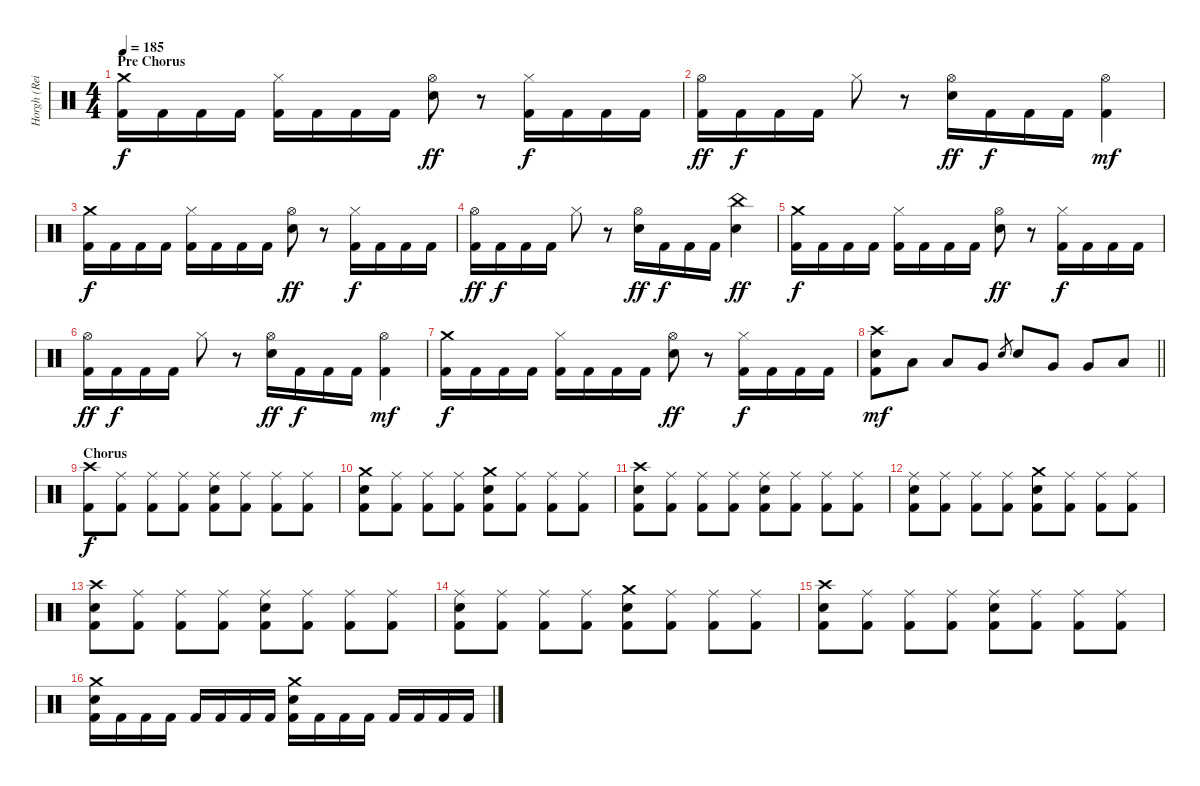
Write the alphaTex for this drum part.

\track ("Horgh (Reidar Horghagen)" "Horgh (Rei") {instrument percussion}
\staff {score}
\articulation defaults
\ts (4 4)
\section ("" "Pre Chorus")
\tempo 185
\clef neutral
\ks c
("Crash medium (hit)" "Kick (hit) 2").16{dy f} "Kick (hit) 2".16 "Kick (hit) 2".16 "Kick (hit) 2".16 ("Hi-Hat (closed)" "Kick (hit) 2").16 "Kick (hit) 2".16 "Kick (hit) 2".16 "Kick (hit) 2".16 ("Hi-Hat (open)" "Snare (hit) 2").8{dy ff} r.8 ("Hi-Hat (closed)" "Kick (hit) 2").16{dy f} "Kick (hit) 2".16 "Kick (hit) 2".16 "Kick (hit) 2".16 |
("Hi-Hat (open)" "Kick (hit) 2").16{dy ff} "Kick (hit) 2".16{dy f} "Kick (hit) 2".16 "Kick (hit) 2".16 "Hi-Hat (closed)".8 r.8 ("Hi-Hat (open)" "Snare (hit) 2").16{dy ff} "Kick (hit) 2".16{dy f} "Kick (hit) 2".16 "Kick (hit) 2".16 ("Hi-Hat (open)" "Kick (hit) 2").4{dy mf} |
("Crash medium (hit)" "Kick (hit) 2").16{dy f} "Kick (hit) 2".16 "Kick (hit) 2".16 "Kick (hit) 2".16 ("Hi-Hat (closed)" "Kick (hit) 2").16 "Kick (hit) 2".16 "Kick (hit) 2".16 "Kick (hit) 2".16 ("Hi-Hat (open)" "Snare (hit) 2").8{dy ff} r.8 ("Hi-Hat (closed)" "Kick (hit) 2").16{dy f} "Kick (hit) 2".16 "Kick (hit) 2".16 "Kick (hit) 2".16 |
("Hi-Hat (open)" "Kick (hit) 2").16{dy ff} "Kick (hit) 2".16{dy f} "Kick (hit) 2".16 "Kick (hit) 2".16 "Hi-Hat (closed)".8 r.8 ("Hi-Hat (open)" "Snare (hit) 2").16{dy ff} "Kick (hit) 2".16{dy f} "Kick (hit) 2".16 "Kick (hit) 2".16 ("China (hit)" "Snare (hit) 2").4{dy ff} |
("Crash medium (hit)" "Kick (hit) 2").16{dy f} "Kick (hit) 2".16 "Kick (hit) 2".16 "Kick (hit) 2".16 ("Hi-Hat (closed)" "Kick (hit) 2").16 "Kick (hit) 2".16 "Kick (hit) 2".16 "Kick (hit) 2".16 ("Hi-Hat (open)" "Snare (hit) 2").8{dy ff} r.8 ("Hi-Hat (closed)" "Kick (hit) 2").16{dy f} "Kick (hit) 2".16 "Kick (hit) 2".16 "Kick (hit) 2".16 |
("Hi-Hat (open)" "Kick (hit) 2").16{dy ff} "Kick (hit) 2".16{dy f} "Kick (hit) 2".16 "Kick (hit) 2".16 "Hi-Hat (closed)".8 r.8 ("Hi-Hat (open)" "Snare (hit) 2").16{dy ff} "Kick (hit) 2".16{dy f} "Kick (hit) 2".16 "Kick (hit) 2".16 ("Hi-Hat (open)" "Kick (hit) 2").4{dy mf} |
("Crash medium (hit)" "Kick (hit) 2").16{dy f} "Kick (hit) 2".16 "Kick (hit) 2".16 "Kick (hit) 2".16 ("Hi-Hat (closed)" "Kick (hit) 2").16 "Kick (hit) 2".16 "Kick (hit) 2".16 "Kick (hit) 2".16 ("Hi-Hat (open)" "Snare (hit) 2").8{dy ff} r.8 ("Hi-Hat (closed)" "Kick (hit) 2").16{dy f} "Kick (hit) 2".16 "Kick (hit) 2".16 "Kick (hit) 2".16 |
\barLineRight lightlight
("Crash high (hit)" "Snare (hit) 2" "Kick (hit) 2").8{dy mf} "Low Tom (hit)".8 "Low Tom (hit)".8 "Very Low Tom (hit)".8 "Snare (hit) 2".8{gr} "Snare (hit) 2".8 "Very Low Tom (hit)".8 "Very Low Tom (hit)".8 "Low Floor Tom (hit)".8 |
\section ("" "Chorus")
("Crash high (hit)" "Kick (hit) 2").8{dy f} ("Ride (middle)" "Kick (hit) 2").8 ("Ride (middle)" "Kick (hit) 2").8 ("Ride (middle)" "Kick (hit) 2").8 ("Ride (middle)" "Snare (hit) 2" "Kick (hit) 2").8 ("Ride (middle)" "Kick (hit) 2").8 ("Ride (middle)" "Kick (hit) 2").8 ("Ride (middle)" "Kick (hit) 2").8 |
("Crash medium (hit)" "Snare (hit) 2" "Kick (hit) 2").8 ("Ride (middle)" "Kick (hit) 2").8 ("Ride (middle)" "Kick (hit) 2").8 ("Ride (middle)" "Kick (hit) 2").8 ("Crash medium (hit)" "Snare (hit) 2" "Kick (hit) 2").8 ("Ride (middle)" "Kick (hit) 2").8 ("Ride (middle)" "Kick (hit) 2").8 ("Ride (middle)" "Kick (hit) 2").8 |
("Crash high (hit)" "Snare (hit) 2" "Kick (hit) 2").8 ("Ride (middle)" "Kick (hit) 2").8 ("Ride (middle)" "Kick (hit) 2").8 ("Ride (middle)" "Kick (hit) 2").8 ("Ride (middle)" "Snare (hit) 2" "Kick (hit) 2").8 ("Ride (middle)" "Kick (hit) 2").8 ("Ride (middle)" "Kick (hit) 2").8 ("Ride (middle)" "Kick (hit) 2").8 |
("Ride (middle)" "Snare (hit) 2" "Kick (hit) 2").8 ("Ride (middle)" "Kick (hit) 2").8 ("Ride (middle)" "Kick (hit) 2").8 ("Ride (middle)" "Kick (hit) 2").8 ("Crash medium (hit)" "Snare (hit) 2" "Kick (hit) 2").8 ("Ride (middle)" "Kick (hit) 2").8 ("Ride (middle)" "Kick (hit) 2").8 ("Ride (middle)" "Kick (hit) 2").8 |
("Crash high (hit)" "Snare (hit) 2" "Kick (hit) 2").8 ("Ride (middle)" "Kick (hit) 2").8 ("Ride (middle)" "Kick (hit) 2").8 ("Ride (middle)" "Kick (hit) 2").8 ("Ride (middle)" "Snare (hit) 2" "Kick (hit) 2").8 ("Ride (middle)" "Kick (hit) 2").8 ("Ride (middle)" "Kick (hit) 2").8 ("Ride (middle)" "Kick (hit) 2").8 |
("Ride (middle)" "Snare (hit) 2" "Kick (hit) 2").8 ("Ride (middle)" "Kick (hit) 2").8 ("Ride (middle)" "Kick (hit) 2").8 ("Ride (middle)" "Kick (hit) 2").8 ("Crash medium (hit)" "Snare (hit) 2" "Kick (hit) 2").8 ("Ride (middle)" "Kick (hit) 2").8 ("Ride (middle)" "Kick (hit) 2").8 ("Ride (middle)" "Kick (hit) 2").8 |
("Crash high (hit)" "Snare (hit) 2" "Kick (hit) 2").8 ("Ride (middle)" "Kick (hit) 2").8 ("Ride (middle)" "Kick (hit) 2").8 ("Ride (middle)" "Kick (hit) 2").8 ("Ride (middle)" "Snare (hit) 2" "Kick (hit) 2").8 ("Ride (middle)" "Kick (hit) 2").8 ("Ride (middle)" "Kick (hit) 2").8 ("Ride (middle)" "Kick (hit) 2").8 |
("Crash medium (hit)" "Snare (hit) 2" "Kick (hit) 2").16 "Kick (hit) 2".16 "Kick (hit) 2".16 "Kick (hit) 2".16 "Kick (hit) 2".16 "Kick (hit) 2".16 "Kick (hit) 2".16 "Kick (hit) 2".16 ("Crash medium (hit)" "Snare (hit) 2" "Kick (hit) 2").16 "Kick (hit) 2".16 "Kick (hit) 2".16 "Kick (hit) 2".16 "Kick (hit) 2".16 "Kick (hit) 2".16 "Kick (hit) 2".16 "Kick (hit) 2".16
